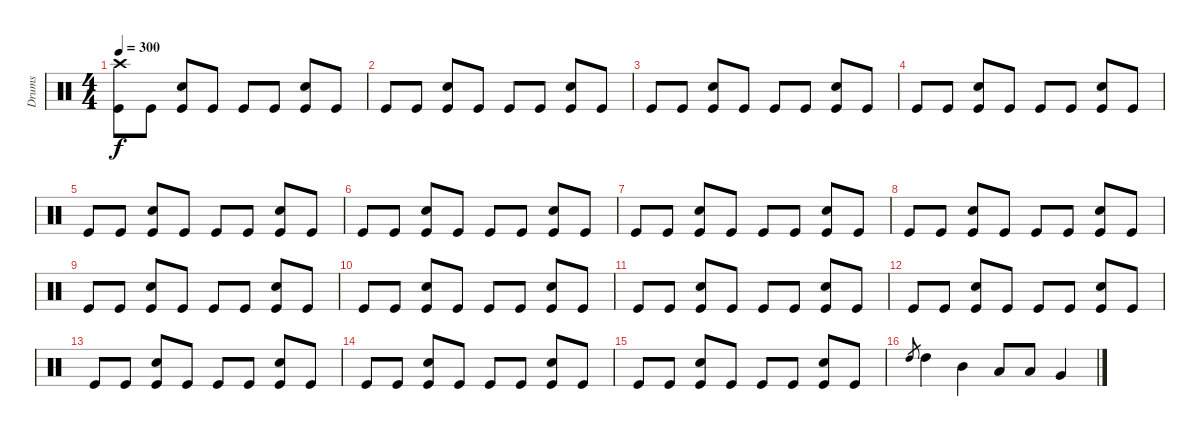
\track ("Drums" "Drums") {instrument percussion}
\staff {score}
\articulation defaults
\ts (4 4)
\tempo 300
\clef neutral
\ks c
("Crash high (hit)" "Kick (hit)").8{dy f} "Kick (hit)".8 ("Electric Snare (hit)" "Kick (hit)").8 "Kick (hit)".8 "Kick (hit)".8 "Kick (hit)".8 ("Electric Snare (hit)" "Kick (hit)").8 "Kick (hit)".8 |
"Kick (hit)".8 "Kick (hit)".8 ("Electric Snare (hit)" "Kick (hit)").8 "Kick (hit)".8 "Kick (hit)".8 "Kick (hit)".8 ("Electric Snare (hit)" "Kick (hit)").8 "Kick (hit)".8 |
"Kick (hit)".8 "Kick (hit)".8 ("Electric Snare (hit)" "Kick (hit)").8 "Kick (hit)".8 "Kick (hit)".8 "Kick (hit)".8 ("Electric Snare (hit)" "Kick (hit)").8 "Kick (hit)".8 |
"Kick (hit)".8 "Kick (hit)".8 ("Electric Snare (hit)" "Kick (hit)").8 "Kick (hit)".8 "Kick (hit)".8 "Kick (hit)".8 ("Electric Snare (hit)" "Kick (hit)").8 "Kick (hit)".8 |
"Kick (hit)".8 "Kick (hit)".8 ("Electric Snare (hit)" "Kick (hit)").8 "Kick (hit)".8 "Kick (hit)".8 "Kick (hit)".8 ("Electric Snare (hit)" "Kick (hit)").8 "Kick (hit)".8 |
"Kick (hit)".8 "Kick (hit)".8 ("Electric Snare (hit)" "Kick (hit)").8 "Kick (hit)".8 "Kick (hit)".8 "Kick (hit)".8 ("Electric Snare (hit)" "Kick (hit)").8 "Kick (hit)".8 |
"Kick (hit)".8 "Kick (hit)".8 ("Electric Snare (hit)" "Kick (hit)").8 "Kick (hit)".8 "Kick (hit)".8 "Kick (hit)".8 ("Electric Snare (hit)" "Kick (hit)").8 "Kick (hit)".8 |
"Kick (hit)".8 "Kick (hit)".8 ("Electric Snare (hit)" "Kick (hit)").8 "Kick (hit)".8 "Kick (hit)".8 "Kick (hit)".8 ("Electric Snare (hit)" "Kick (hit)").8 "Kick (hit)".8 |
"Kick (hit)".8 "Kick (hit)".8 ("Electric Snare (hit)" "Kick (hit)").8 "Kick (hit)".8 "Kick (hit)".8 "Kick (hit)".8 ("Electric Snare (hit)" "Kick (hit)").8 "Kick (hit)".8 |
"Kick (hit)".8 "Kick (hit)".8 ("Electric Snare (hit)" "Kick (hit)").8 "Kick (hit)".8 "Kick (hit)".8 "Kick (hit)".8 ("Electric Snare (hit)" "Kick (hit)").8 "Kick (hit)".8 |
"Kick (hit)".8 "Kick (hit)".8 ("Electric Snare (hit)" "Kick (hit)").8 "Kick (hit)".8 "Kick (hit)".8 "Kick (hit)".8 ("Electric Snare (hit)" "Kick (hit)").8 "Kick (hit)".8 |
"Kick (hit)".8 "Kick (hit)".8 ("Electric Snare (hit)" "Kick (hit)").8 "Kick (hit)".8 "Kick (hit)".8 "Kick (hit)".8 ("Electric Snare (hit)" "Kick (hit)").8 "Kick (hit)".8 |
"Kick (hit)".8 "Kick (hit)".8 ("Electric Snare (hit)" "Kick (hit)").8 "Kick (hit)".8 "Kick (hit)".8 "Kick (hit)".8 ("Electric Snare (hit)" "Kick (hit)").8 "Kick (hit)".8 |
"Kick (hit)".8 "Kick (hit)".8 ("Electric Snare (hit)" "Kick (hit)").8 "Kick (hit)".8 "Kick (hit)".8 "Kick (hit)".8 ("Electric Snare (hit)" "Kick (hit)").8 "Kick (hit)".8 |
"Kick (hit)".8 "Kick (hit)".8 ("Electric Snare (hit)" "Kick (hit)").8 "Kick (hit)".8 "Kick (hit)".8 "Kick (hit)".8 ("Electric Snare (hit)" "Kick (hit)").8 "Kick (hit)".8 |
"High Tom (hit)".8{gr} "High Tom (hit)".4 "Mid Tom (hit)".4 "Low Tom (hit)".8 "Low Tom (hit)".8 "Very Low Tom (hit)".4
